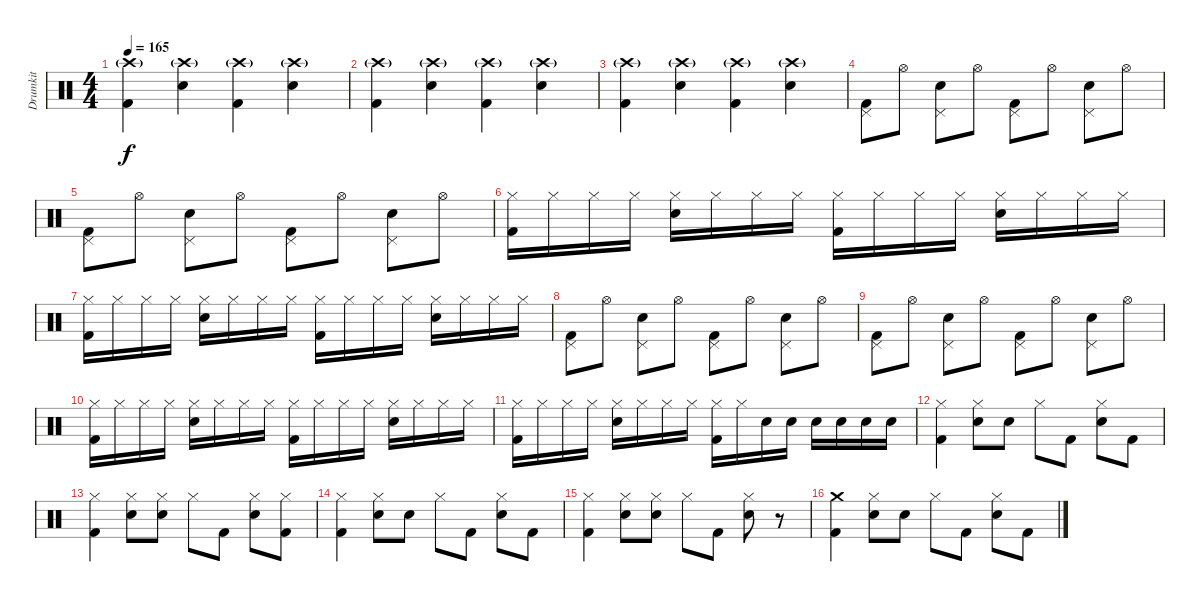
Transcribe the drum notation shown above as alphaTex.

\track ("Drumkit" "Drumkit") {instrument percussion}
\staff {score}
\articulation defaults
\ts (4 4)
\tempo 165
\clef neutral
\ks c
("Crash high (hit)"{g} "Kick (hit) 2").4{dy f} ("Crash high (hit)"{g} "Snare (hit) 2").4 ("Crash high (hit)"{g} "Kick (hit) 2").4 ("Crash high (hit)"{g} "Snare (hit) 2").4 |
("Crash high (hit)"{g} "Kick (hit) 2").4 ("Crash high (hit)"{g} "Snare (hit) 2").4 ("Crash high (hit)"{g} "Kick (hit) 2").4 ("Crash high (hit)"{g} "Snare (hit) 2").4 |
("Crash high (hit)"{g} "Kick (hit) 2").4 ("Crash high (hit)"{g} "Snare (hit) 2").4 ("Crash high (hit)"{g} "Kick (hit) 2").4 ("Crash high (hit)"{g} "Snare (hit) 2").4 |
("Pedal Hi-Hat (hit)" "Kick (hit) 2").8 "Hi-Hat (open)".8 ("Pedal Hi-Hat (hit)" "Snare (hit) 2").8 "Hi-Hat (open)".8 ("Pedal Hi-Hat (hit)" "Kick (hit) 2").8 "Hi-Hat (open)".8 ("Pedal Hi-Hat (hit)" "Snare (hit) 2").8 "Hi-Hat (open)".8 |
("Pedal Hi-Hat (hit)" "Kick (hit) 2").8 "Hi-Hat (open)".8 ("Pedal Hi-Hat (hit)" "Snare (hit) 2").8 "Hi-Hat (open)".8 ("Pedal Hi-Hat (hit)" "Kick (hit) 2").8 "Hi-Hat (open)".8 ("Pedal Hi-Hat (hit)" "Snare (hit) 2").8 "Hi-Hat (open)".8 |
("Hi-Hat (closed)" "Kick (hit) 2").16 "Hi-Hat (closed)".16 "Hi-Hat (closed)".16 "Hi-Hat (closed)".16 ("Hi-Hat (closed)" "Snare (hit) 2").16 "Hi-Hat (closed)".16 "Hi-Hat (closed)".16 "Hi-Hat (closed)".16 ("Hi-Hat (closed)" "Kick (hit) 2").16 "Hi-Hat (closed)".16 "Hi-Hat (closed)".16 "Hi-Hat (closed)".16 ("Hi-Hat (closed)" "Snare (hit) 2").16 "Hi-Hat (closed)".16 "Hi-Hat (closed)".16 "Hi-Hat (closed)".16 |
("Hi-Hat (closed)" "Kick (hit) 2").16 "Hi-Hat (closed)".16 "Hi-Hat (closed)".16 "Hi-Hat (closed)".16 ("Hi-Hat (closed)" "Snare (hit) 2").16 "Hi-Hat (closed)".16 "Hi-Hat (closed)".16 "Hi-Hat (closed)".16 ("Hi-Hat (closed)" "Kick (hit) 2").16 "Hi-Hat (closed)".16 "Hi-Hat (closed)".16 "Hi-Hat (closed)".16 ("Hi-Hat (closed)" "Snare (hit) 2").16 "Hi-Hat (closed)".16 "Hi-Hat (closed)".16 "Hi-Hat (closed)".16 |
("Pedal Hi-Hat (hit)" "Kick (hit) 2").8 "Hi-Hat (open)".8 ("Pedal Hi-Hat (hit)" "Snare (hit) 2").8 "Hi-Hat (open)".8 ("Pedal Hi-Hat (hit)" "Kick (hit) 2").8 "Hi-Hat (open)".8 ("Pedal Hi-Hat (hit)" "Snare (hit) 2").8 "Hi-Hat (open)".8 |
("Pedal Hi-Hat (hit)" "Kick (hit) 2").8 "Hi-Hat (open)".8 ("Pedal Hi-Hat (hit)" "Snare (hit) 2").8 "Hi-Hat (open)".8 ("Pedal Hi-Hat (hit)" "Kick (hit) 2").8 "Hi-Hat (open)".8 ("Pedal Hi-Hat (hit)" "Snare (hit) 2").8 "Hi-Hat (open)".8 |
("Hi-Hat (closed)" "Kick (hit) 2").16 "Hi-Hat (closed)".16 "Hi-Hat (closed)".16 "Hi-Hat (closed)".16 ("Hi-Hat (closed)" "Snare (hit) 2").16 "Hi-Hat (closed)".16 "Hi-Hat (closed)".16 "Hi-Hat (closed)".16 ("Hi-Hat (closed)" "Kick (hit) 2").16 "Hi-Hat (closed)".16 "Hi-Hat (closed)".16 "Hi-Hat (closed)".16 ("Hi-Hat (closed)" "Snare (hit) 2").16 "Hi-Hat (closed)".16 "Hi-Hat (closed)".16 "Hi-Hat (closed)".16 |
("Hi-Hat (closed)" "Kick (hit) 2").16 "Hi-Hat (closed)".16 "Hi-Hat (closed)".16 "Hi-Hat (closed)".16 ("Hi-Hat (closed)" "Snare (hit) 2").16 "Hi-Hat (closed)".16 "Hi-Hat (closed)".16 "Hi-Hat (closed)".16 ("Hi-Hat (closed)" "Kick (hit) 2").16 "Hi-Hat (closed)".16 "Snare (hit) 2".16 "Snare (hit) 2".16 "Snare (hit) 2".16 "Snare (hit) 2".16 "Snare (hit) 2".16 "Snare (hit) 2".16 |
("Hi-Hat (closed)" "Kick (hit) 2").4 ("Hi-Hat (closed)" "Snare (hit) 2").8 "Snare (hit) 2".8 "Hi-Hat (closed)".8 "Kick (hit) 2".8 ("Hi-Hat (closed)" "Snare (hit) 2").8 "Kick (hit) 2".8 |
("Hi-Hat (closed)" "Kick (hit) 2").4 ("Hi-Hat (closed)" "Snare (hit) 2").8 ("Hi-Hat (closed)" "Snare (hit) 2").8 "Hi-Hat (closed)".8 "Kick (hit) 2".8 ("Hi-Hat (closed)" "Snare (hit) 2").8 ("Hi-Hat (closed)" "Kick (hit) 2").8 |
("Hi-Hat (closed)" "Kick (hit) 2").4 ("Hi-Hat (closed)" "Snare (hit) 2").8 "Snare (hit) 2".8 "Hi-Hat (closed)".8 "Kick (hit) 2".8 ("Hi-Hat (closed)" "Snare (hit) 2").8 "Kick (hit) 2".8 |
("Hi-Hat (closed)" "Kick (hit) 2").4 ("Hi-Hat (closed)" "Snare (hit) 2").8 ("Hi-Hat (closed)" "Snare (hit) 2").8 "Hi-Hat (closed)".8 "Kick (hit) 2".8 ("Hi-Hat (closed)" "Snare (hit) 2").8 r.8 |
("Crash medium (hit)" "Kick (hit) 2").4 ("Hi-Hat (closed)" "Snare (hit) 2").8 "Snare (hit) 2".8 "Hi-Hat (closed)".8 "Kick (hit) 2".8 ("Hi-Hat (closed)" "Snare (hit) 2").8 "Kick (hit) 2".8
